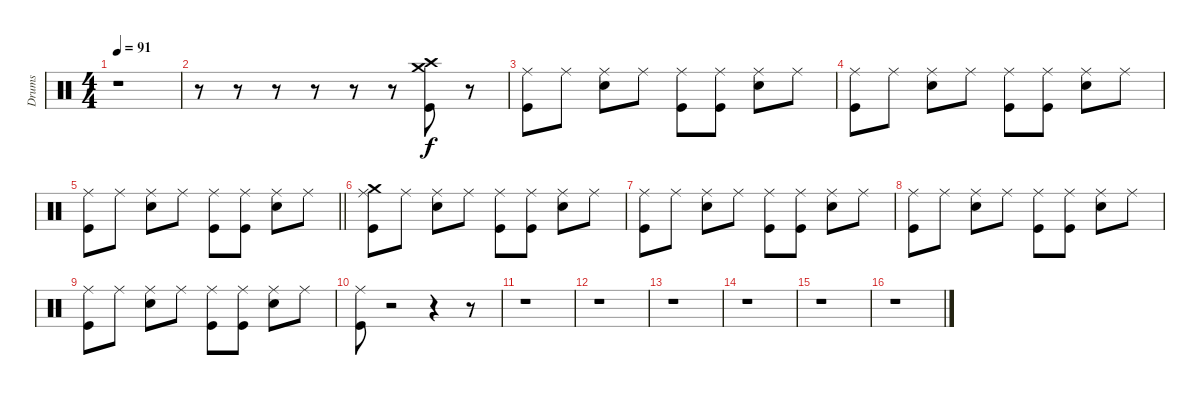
\track ("Drums" "Drums") {instrument percussion}
\staff {score}
\articulation defaults
\ts (4 4)
\tempo 91
\clef neutral
\ks c
r.1{dy f} |
r.8 r.8 r.8 r.8 r.8 r.8 ("Crash high (hit)" "Crash medium (hit)" "Kick (hit)").8 r.8 |
("Ride (middle)" "Kick (hit)").8 "Ride (middle)".8 ("Ride (middle)" "Electric Snare (hit)").8 "Ride (middle)".8 ("Ride (middle)" "Kick (hit)").8 ("Ride (middle)" "Kick (hit)").8 ("Ride (middle)" "Electric Snare (hit)").8 "Ride (middle)".8 |
("Ride (middle)" "Kick (hit)").8 "Ride (middle)".8 ("Ride (middle)" "Electric Snare (hit)").8 "Ride (middle)".8 ("Ride (middle)" "Kick (hit)").8 ("Ride (middle)" "Kick (hit)").8 ("Ride (middle)" "Electric Snare (hit)").8 "Ride (middle)".8 |
\barLineRight lightlight
("Ride (middle)" "Kick (hit)").8 "Ride (middle)".8 ("Ride (middle)" "Electric Snare (hit)").8 "Ride (middle)".8 ("Ride (middle)" "Kick (hit)").8 ("Ride (middle)" "Kick (hit)").8 ("Ride (middle)" "Electric Snare (hit)").8 "Ride (middle)".8 |
("Crash medium (hit)" "Ride (middle)" "Kick (hit)").8 "Ride (middle)".8 ("Ride (middle)" "Electric Snare (hit)").8 "Ride (middle)".8 ("Ride (middle)" "Kick (hit)").8 ("Ride (middle)" "Kick (hit)").8 ("Ride (middle)" "Electric Snare (hit)").8 "Ride (middle)".8 |
("Ride (middle)" "Kick (hit)").8 "Ride (middle)".8 ("Ride (middle)" "Electric Snare (hit)").8 "Ride (middle)".8 ("Ride (middle)" "Kick (hit)").8 ("Ride (middle)" "Kick (hit)").8 ("Ride (middle)" "Electric Snare (hit)").8 "Ride (middle)".8 |
("Ride (middle)" "Kick (hit)").8 "Ride (middle)".8 ("Ride (middle)" "Electric Snare (hit)").8 "Ride (middle)".8 ("Ride (middle)" "Kick (hit)").8 ("Ride (middle)" "Kick (hit)").8 ("Ride (middle)" "Electric Snare (hit)").8 "Ride (middle)".8 |
("Ride (middle)" "Kick (hit)").8 "Ride (middle)".8 ("Ride (middle)" "Electric Snare (hit)").8 "Ride (middle)".8 ("Ride (middle)" "Kick (hit)").8 ("Ride (middle)" "Kick (hit)").8 ("Ride (middle)" "Electric Snare (hit)").8 "Ride (middle)".8 |
("Ride (middle)" "Kick (hit)").8 r.2 r.4 r.8 |
r.1 |
r.1 |
r.1 |
r.1 |
r.1 |
r.1
